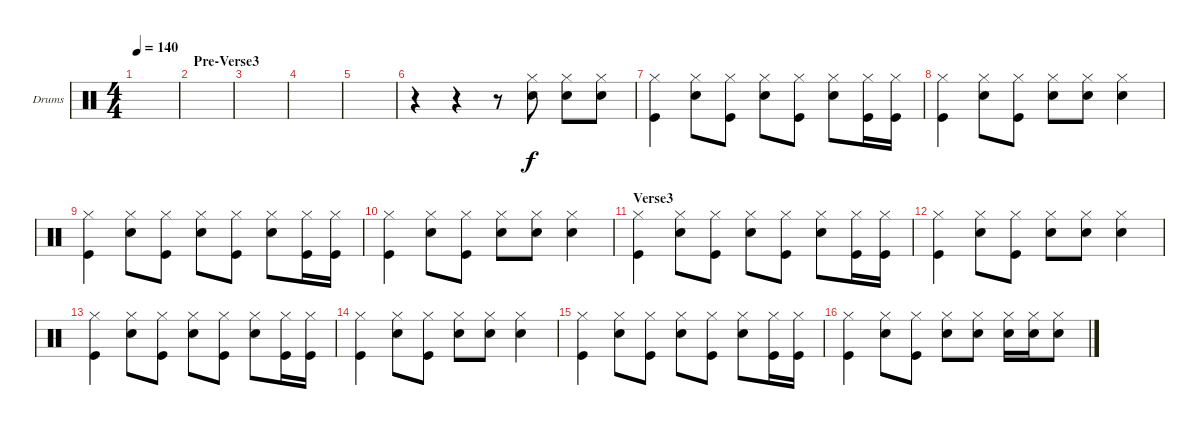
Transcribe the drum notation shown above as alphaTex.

\defaultSystemsLayout 4
\bracketExtendMode groupsimilarinstruments
\firstSystemTrackNameOrientation horizontal
\otherSystemsTrackNameOrientation horizontal
\track ("Jerinx" "Drums") {instrument percussion}
\staff {score}
\articulation defaults
\ts (4 4)
\tempo 140
\clef neutral
\scale
0.333333
\ks c
|
\section ("" "Pre-Verse3")
\scale
0.333333 |
\scale
0.333333 |
\scale
0.333333 |
\scale
0.333333 |
\scale
0.333333 r.4 r.4 r.8 ("Hi-Hat (closed)" "Snare (hit) 2").8 ("Hi-Hat (closed)" "Snare (hit) 2").8 ("Hi-Hat (closed)" "Snare (hit) 2").8 |
\scale
0.333333 ("Hi-Hat (closed)" "Kick (hit)").4 ("Hi-Hat (closed)" "Snare (hit) 2").8 ("Hi-Hat (closed)" "Kick (hit)").8 ("Hi-Hat (closed)" "Snare (hit) 2").8 ("Hi-Hat (closed)" "Kick (hit)").8 ("Hi-Hat (closed)" "Snare (hit) 2").8 ("Hi-Hat (closed)" "Kick (hit)").16 ("Hi-Hat (closed)" "Kick (hit)").16 |
\scale
0.333333 ("Hi-Hat (closed)" "Kick (hit)").4 ("Hi-Hat (closed)" "Snare (hit) 2").8 ("Hi-Hat (closed)" "Kick (hit)").8 ("Hi-Hat (closed)" "Snare (hit) 2").8 ("Hi-Hat (closed)" "Snare (hit) 2").8 ("Hi-Hat (closed)" "Snare (hit) 2").4 |
\scale
0.333333 ("Hi-Hat (closed)" "Kick (hit)").4 ("Hi-Hat (closed)" "Snare (hit) 2").8 ("Hi-Hat (closed)" "Kick (hit)").8 ("Hi-Hat (closed)" "Snare (hit) 2").8 ("Hi-Hat (closed)" "Kick (hit)").8 ("Hi-Hat (closed)" "Snare (hit) 2").8 ("Hi-Hat (closed)" "Kick (hit)").16 ("Hi-Hat (closed)" "Kick (hit)").16 |
\scale
0.333333 ("Hi-Hat (closed)" "Kick (hit)").4 ("Hi-Hat (closed)" "Snare (hit) 2").8 ("Hi-Hat (closed)" "Kick (hit)").8 ("Hi-Hat (closed)" "Snare (hit) 2").8 ("Hi-Hat (closed)" "Snare (hit) 2").8 ("Hi-Hat (closed)" "Snare (hit) 2").4 |
\section ("" "Verse3")
\scale
0.333333 ("Hi-Hat (closed)" "Kick (hit)").4 ("Hi-Hat (closed)" "Snare (hit) 2").8 ("Hi-Hat (closed)" "Kick (hit)").8 ("Hi-Hat (closed)" "Snare (hit) 2").8 ("Hi-Hat (closed)" "Kick (hit)").8 ("Hi-Hat (closed)" "Snare (hit) 2").8 ("Hi-Hat (closed)" "Kick (hit)").16 ("Hi-Hat (closed)" "Kick (hit)").16 |
\scale
0.333333 ("Hi-Hat (closed)" "Kick (hit)").4 ("Hi-Hat (closed)" "Snare (hit) 2").8 ("Hi-Hat (closed)" "Kick (hit)").8 ("Hi-Hat (closed)" "Snare (hit) 2").8 ("Hi-Hat (closed)" "Snare (hit) 2").8 ("Hi-Hat (closed)" "Snare (hit) 2").4 |
\scale
0.333333 ("Hi-Hat (closed)" "Kick (hit)").4 ("Hi-Hat (closed)" "Snare (hit) 2").8 ("Hi-Hat (closed)" "Kick (hit)").8 ("Hi-Hat (closed)" "Snare (hit) 2").8 ("Hi-Hat (closed)" "Kick (hit)").8 ("Hi-Hat (closed)" "Snare (hit) 2").8 ("Hi-Hat (closed)" "Kick (hit)").16 ("Hi-Hat (closed)" "Kick (hit)").16 |
\scale
0.333333 ("Hi-Hat (closed)" "Kick (hit)").4 ("Hi-Hat (closed)" "Snare (hit) 2").8 ("Hi-Hat (closed)" "Kick (hit)").8 ("Hi-Hat (closed)" "Snare (hit) 2").8 ("Hi-Hat (closed)" "Snare (hit) 2").8 ("Hi-Hat (closed)" "Snare (hit) 2").4 |
\scale
0.333333 ("Hi-Hat (closed)" "Kick (hit)").4 ("Hi-Hat (closed)" "Snare (hit) 2").8 ("Hi-Hat (closed)" "Kick (hit)").8 ("Hi-Hat (closed)" "Snare (hit) 2").8 ("Hi-Hat (closed)" "Kick (hit)").8 ("Hi-Hat (closed)" "Snare (hit) 2").8 ("Hi-Hat (closed)" "Kick (hit)").16 ("Hi-Hat (closed)" "Kick (hit)").16 |
\scale
0.333333 ("Hi-Hat (closed)" "Kick (hit)").4 ("Hi-Hat (closed)" "Snare (hit) 2").8 ("Hi-Hat (closed)" "Kick (hit)").8 ("Hi-Hat (closed)" "Snare (hit) 2").8 ("Hi-Hat (closed)" "Snare (hit) 2").8 ("Hi-Hat (closed)" "Snare (hit) 2").16 ("Hi-Hat (closed)" "Snare (hit) 2").16 ("Hi-Hat (closed)" "Snare (hit) 2").8
